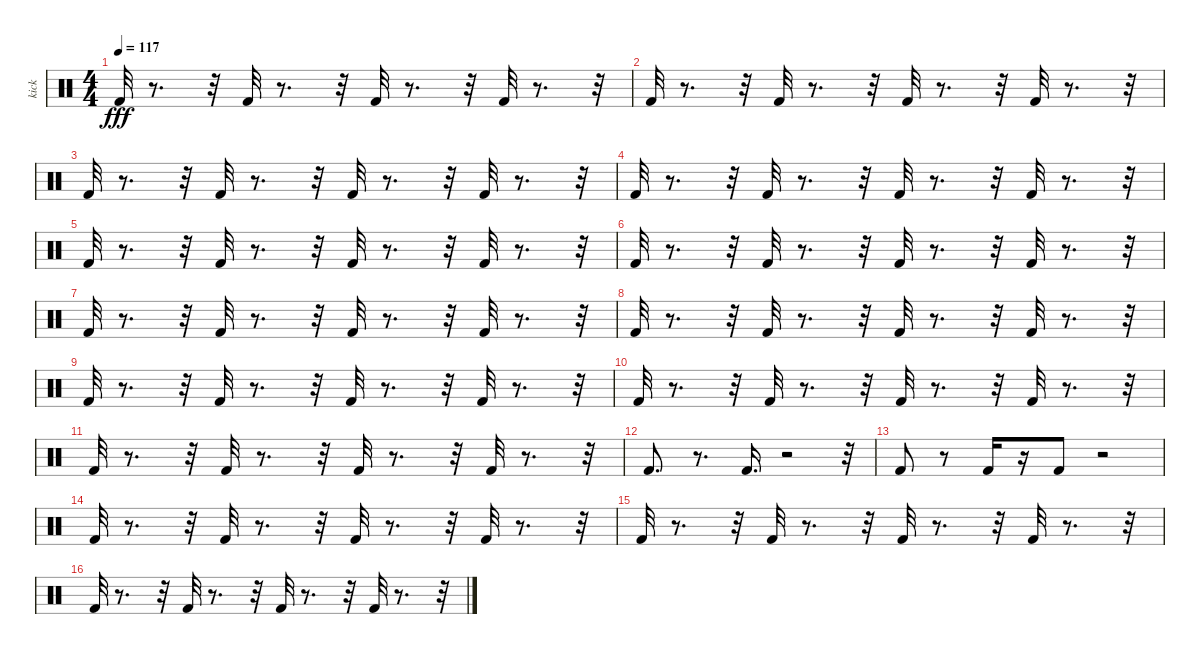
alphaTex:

\track ("kick" "kick") {instrument percussion}
\staff {score}
\articulation defaults
\ts (4 4)
\tempo 117
\clef neutral
\ks c "Kick (hit) 2".32{dy fff}
r.8{d} r.32 "Kick (hit) 2".32 r.8{d} r.32 "Kick (hit) 2".32 r.8{d} r.32 "Kick (hit) 2".32 r.8{d} r.32 |
"Kick (hit) 2".32 r.8{d} r.32 "Kick (hit) 2".32 r.8{d} r.32 "Kick (hit) 2".32 r.8{d} r.32 "Kick (hit) 2".32 r.8{d} r.32 |
"Kick (hit) 2".32 r.8{d} r.32 "Kick (hit) 2".32 r.8{d} r.32 "Kick (hit) 2".32 r.8{d} r.32 "Kick (hit) 2".32 r.8{d} r.32 |
"Kick (hit) 2".32 r.8{d} r.32 "Kick (hit) 2".32 r.8{d} r.32 "Kick (hit) 2".32 r.8{d} r.32 "Kick (hit) 2".32 r.8{d} r.32 |
"Kick (hit) 2".32 r.8{d} r.32 "Kick (hit) 2".32 r.8{d} r.32 "Kick (hit) 2".32 r.8{d} r.32 "Kick (hit) 2".32 r.8{d} r.32 |
"Kick (hit) 2".32 r.8{d} r.32 "Kick (hit) 2".32 r.8{d} r.32 "Kick (hit) 2".32 r.8{d} r.32 "Kick (hit) 2".32 r.8{d} r.32 |
"Kick (hit) 2".32 r.8{d} r.32 "Kick (hit) 2".32 r.8{d} r.32 "Kick (hit) 2".32 r.8{d} r.32 "Kick (hit) 2".32 r.8{d} r.32 |
"Kick (hit) 2".32 r.8{d} r.32 "Kick (hit) 2".32 r.8{d} r.32 "Kick (hit) 2".32 r.8{d} r.32 "Kick (hit) 2".32 r.8{d} r.32 |
"Kick (hit) 2".32 r.8{d} r.32 "Kick (hit) 2".32 r.8{d} r.32 "Kick (hit) 2".32 r.8{d} r.32 "Kick (hit) 2".32 r.8{d} r.32 |
"Kick (hit) 2".32 r.8{d} r.32 "Kick (hit) 2".32 r.8{d} r.32 "Kick (hit) 2".32 r.8{d} r.32 "Kick (hit) 2".32 r.8{d} r.32 |
"Kick (hit) 2".32 r.8{d} r.32 "Kick (hit) 2".32 r.8{d} r.32 "Kick (hit) 2".32 r.8{d} r.32 "Kick (hit) 2".32 r.8{d} r.32 |
"Kick (hit) 2".8{d} r.8{d} "Kick (hit) 2".16{d} r.2 r.32 |
"Kick (hit) 2".8 r.8 "Kick (hit) 2".16 r.16 "Kick (hit) 2".8 r.2 |
"Kick (hit) 2".32 r.8{d} r.32 "Kick (hit) 2".32 r.8{d} r.32 "Kick (hit) 2".32 r.8{d} r.32 "Kick (hit) 2".32 r.8{d} r.32 |
"Kick (hit) 2".32 r.8{d} r.32 "Kick (hit) 2".32 r.8{d} r.32 "Kick (hit) 2".32 r.8{d} r.32 "Kick (hit) 2".32 r.8{d} r.32 |
"Kick (hit) 2".32 r.8{d} r.32 "Kick (hit) 2".32 r.8{d} r.32 "Kick (hit) 2".32 r.8{d} r.32 "Kick (hit) 2".32 r.8{d} r.32
